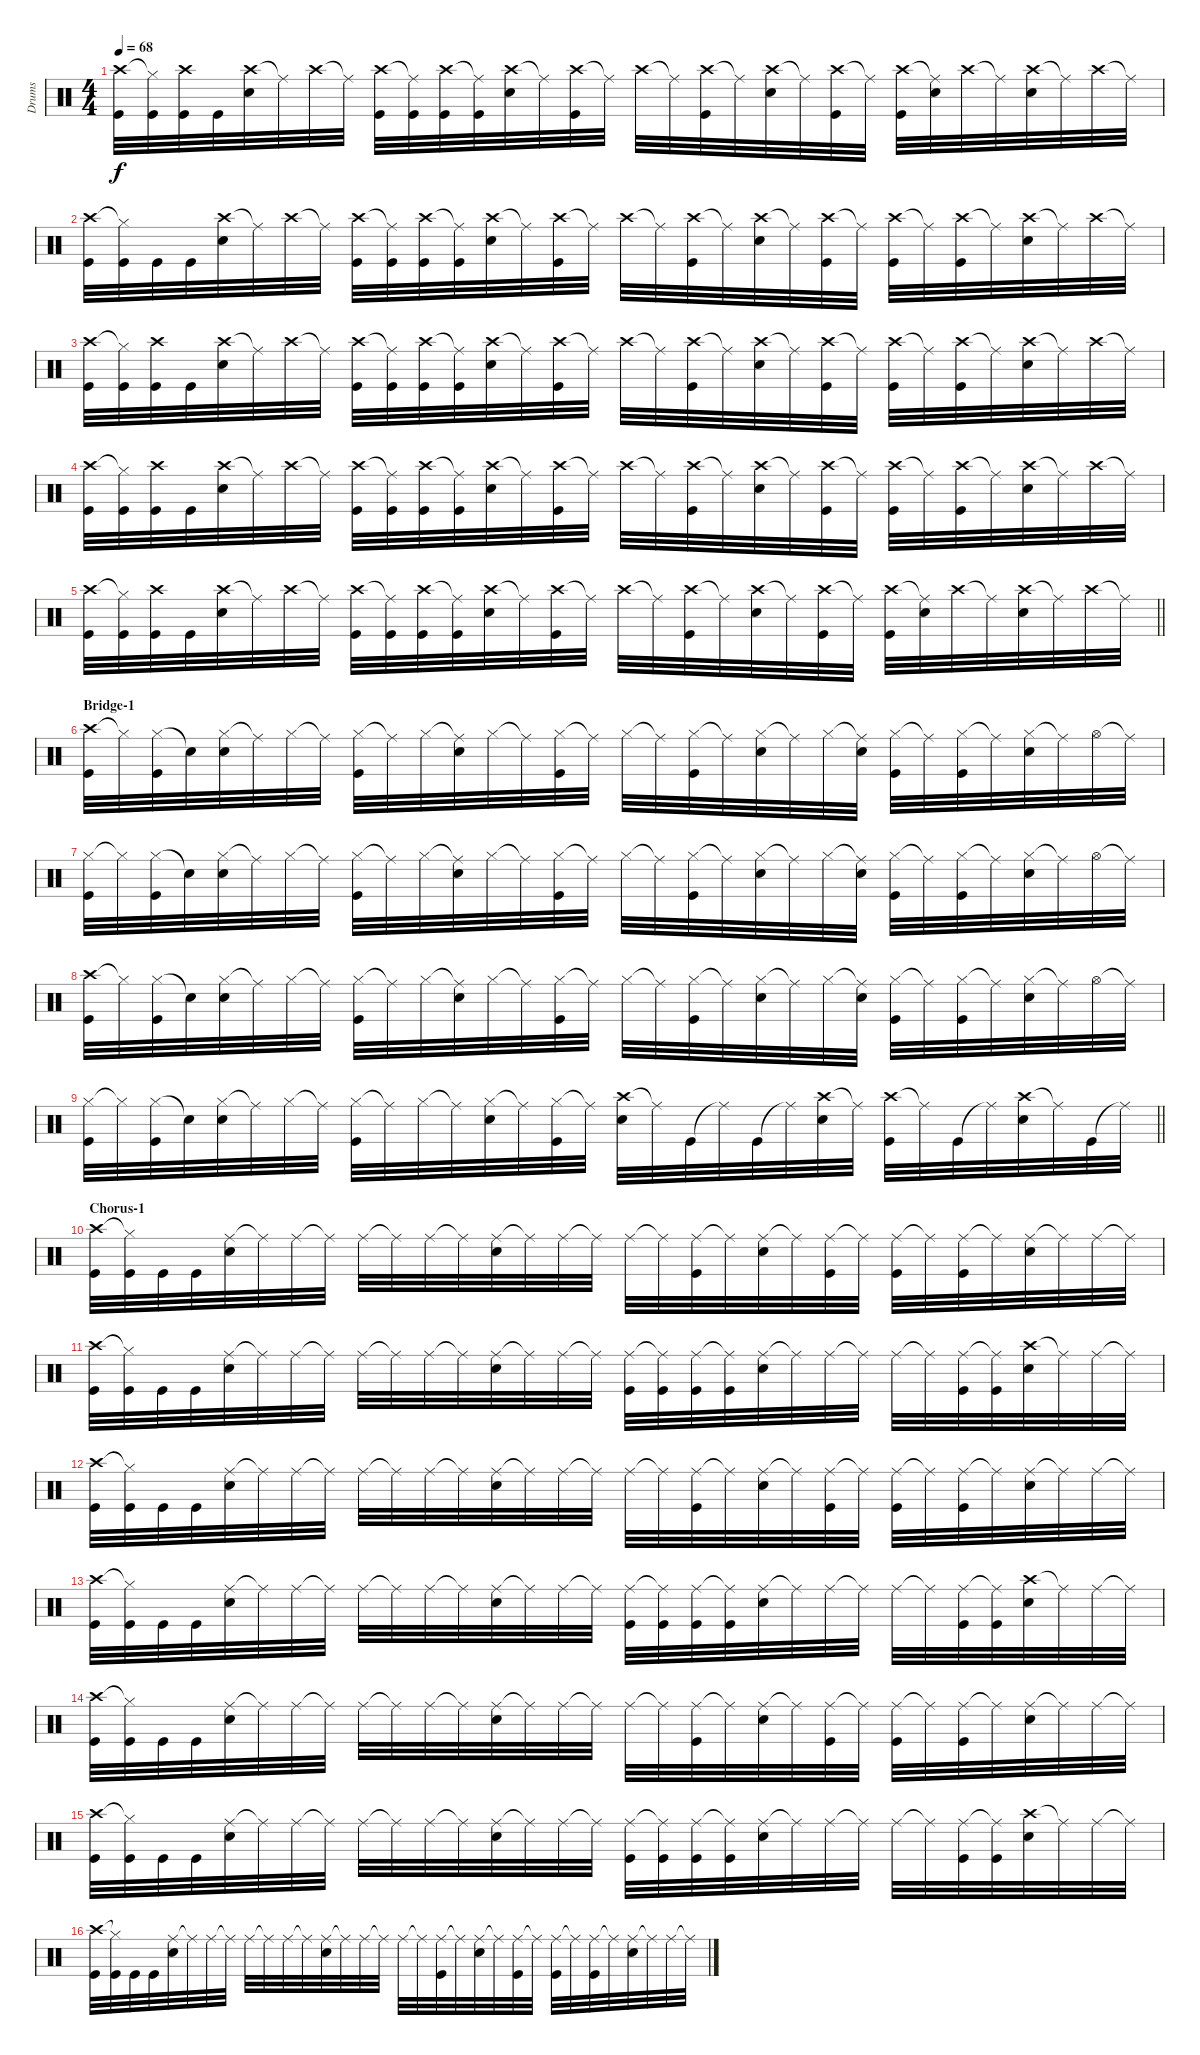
\track ("Drums" "Drums") {instrument percussion}
\staff {score}
\articulation defaults
\ts (4 4)
\tempo 68
\clef neutral
\ks c
("Crash high (hit)" "Kick (hit)").32{dy f} ("Hi-Hat (closed)"{t} "Kick (hit)").32 ("Crash high (hit)" "Kick (hit)").32 "Kick (hit)".32 ("Crash high (hit)" "Electric Snare (hit)").32 "Ride (middle)"{t}.32 "Crash high (hit)".32 "Ride (middle)"{t}.32 ("Crash high (hit)" "Kick (hit)").32 ("Ride (middle)"{t} "Kick (hit)").32 ("Crash high (hit)" "Kick (hit)").32 ("Ride (middle)"{t} "Kick (hit)").32 ("Crash high (hit)" "Electric Snare (hit)").32 "Ride (middle)"{t}.32 ("Crash high (hit)" "Kick (hit)").32 "Ride (middle)"{t}.32 "Crash high (hit)".32 "Ride (middle)"{t}.32 ("Crash high (hit)" "Kick (hit)").32 "Ride (middle)"{t}.32 ("Crash high (hit)" "Electric Snare (hit)").32 "Ride (middle)"{t}.32 ("Crash high (hit)" "Kick (hit)").32 "Ride (middle)"{t}.32 ("Crash high (hit)" "Kick (hit)").32 ("Ride (middle)"{t} "Electric Snare (hit)").32 "Crash high (hit)".32 "Ride (middle)"{t}.32 ("Crash high (hit)" "Electric Snare (hit)").32 "Ride (middle)"{t}.32 "Crash high (hit)".32 "Ride (middle)"{t}.32 |
("Crash high (hit)" "Kick (hit)").32 ("Hi-Hat (closed)"{t} "Kick (hit)").32 "Kick (hit)".32 "Kick (hit)".32 ("Crash high (hit)" "Electric Snare (hit)").32 "Ride (middle)"{t}.32 "Crash high (hit)".32 "Ride (middle)"{t}.32 ("Crash high (hit)" "Kick (hit)").32 ("Ride (middle)"{t} "Kick (hit)").32 ("Crash high (hit)" "Kick (hit)").32 ("Ride (middle)"{t} "Kick (hit)").32 ("Crash high (hit)" "Electric Snare (hit)").32 "Ride (middle)"{t}.32 ("Crash high (hit)" "Kick (hit)").32 "Ride (middle)"{t}.32 "Crash high (hit)".32 "Ride (middle)"{t}.32 ("Crash high (hit)" "Kick (hit)").32 "Ride (middle)"{t}.32 ("Crash high (hit)" "Electric Snare (hit)").32 "Ride (middle)"{t}.32 ("Crash high (hit)" "Kick (hit)").32 "Ride (middle)"{t}.32 ("Crash high (hit)" "Kick (hit)").32 "Ride (middle)"{t}.32 ("Crash high (hit)" "Kick (hit)").32 "Ride (middle)"{t}.32 ("Crash high (hit)" "Electric Snare (hit)").32 "Ride (middle)"{t}.32 "Crash high (hit)".32 "Ride (middle)"{t}.32 |
("Crash high (hit)" "Kick (hit)").32 ("Hi-Hat (closed)"{t} "Kick (hit)").32 ("Crash high (hit)" "Kick (hit)").32 "Kick (hit)".32 ("Crash high (hit)" "Electric Snare (hit)").32 "Ride (middle)"{t}.32 "Crash high (hit)".32 "Ride (middle)"{t}.32 ("Crash high (hit)" "Kick (hit)").32 ("Ride (middle)"{t} "Kick (hit)").32 ("Crash high (hit)" "Kick (hit)").32 ("Ride (middle)"{t} "Kick (hit)").32 ("Crash high (hit)" "Electric Snare (hit)").32 "Ride (middle)"{t}.32 ("Crash high (hit)" "Kick (hit)").32 "Ride (middle)"{t}.32 "Crash high (hit)".32 "Ride (middle)"{t}.32 ("Crash high (hit)" "Kick (hit)").32 "Ride (middle)"{t}.32 ("Crash high (hit)" "Electric Snare (hit)").32 "Ride (middle)"{t}.32 ("Crash high (hit)" "Kick (hit)").32 "Ride (middle)"{t}.32 ("Crash high (hit)" "Kick (hit)").32 "Ride (middle)"{t}.32 ("Crash high (hit)" "Kick (hit)").32 "Ride (middle)"{t}.32 ("Crash high (hit)" "Electric Snare (hit)").32 "Ride (middle)"{t}.32 "Crash high (hit)".32 "Ride (middle)"{t}.32 |
("Crash high (hit)" "Kick (hit)").32 ("Hi-Hat (closed)"{t} "Kick (hit)").32 ("Crash high (hit)" "Kick (hit)").32 "Kick (hit)".32 ("Crash high (hit)" "Electric Snare (hit)").32 "Ride (middle)"{t}.32 "Crash high (hit)".32 "Ride (middle)"{t}.32 ("Crash high (hit)" "Kick (hit)").32 ("Ride (middle)"{t} "Kick (hit)").32 ("Crash high (hit)" "Kick (hit)").32 ("Ride (middle)"{t} "Kick (hit)").32 ("Crash high (hit)" "Electric Snare (hit)").32 "Ride (middle)"{t}.32 ("Crash high (hit)" "Kick (hit)").32 "Ride (middle)"{t}.32 "Crash high (hit)".32 "Ride (middle)"{t}.32 ("Crash high (hit)" "Kick (hit)").32 "Ride (middle)"{t}.32 ("Crash high (hit)" "Electric Snare (hit)").32 "Ride (middle)"{t}.32 ("Crash high (hit)" "Kick (hit)").32 "Ride (middle)"{t}.32 ("Crash high (hit)" "Kick (hit)").32 "Ride (middle)"{t}.32 ("Crash high (hit)" "Kick (hit)").32 "Ride (middle)"{t}.32 ("Crash high (hit)" "Electric Snare (hit)").32 "Ride (middle)"{t}.32 "Crash high (hit)".32 "Ride (middle)"{t}.32 |
\barLineRight lightlight
("Crash high (hit)" "Kick (hit)").32 ("Hi-Hat (closed)"{t} "Kick (hit)").32 ("Crash high (hit)" "Kick (hit)").32 "Kick (hit)".32 ("Crash high (hit)" "Electric Snare (hit)").32 "Ride (middle)"{t}.32 "Crash high (hit)".32 "Ride (middle)"{t}.32 ("Crash high (hit)" "Kick (hit)").32 ("Ride (middle)"{t} "Kick (hit)").32 ("Crash high (hit)" "Kick (hit)").32 ("Ride (middle)"{t} "Kick (hit)").32 ("Crash high (hit)" "Electric Snare (hit)").32 "Ride (middle)"{t}.32 ("Crash high (hit)" "Kick (hit)").32 "Ride (middle)"{t}.32 "Crash high (hit)".32 "Ride (middle)"{t}.32 ("Crash high (hit)" "Kick (hit)").32 "Ride (middle)"{t}.32 ("Crash high (hit)" "Electric Snare (hit)").32 "Ride (middle)"{t}.32 ("Crash high (hit)" "Kick (hit)").32 "Ride (middle)"{t}.32 ("Crash high (hit)" "Kick (hit)").32 ("Ride (middle)"{t} "Electric Snare (hit)").32 "Crash high (hit)".32 "Ride (middle)"{t}.32 ("Crash high (hit)" "Electric Snare (hit)").32 "Ride (middle)"{t}.32 "Crash high (hit)".32 "Ride (middle)"{t}.32 |
\section ("" "Bridge-1")
("Crash high (hit)" "Kick (hit)").32 "Hi-Hat (closed)"{t}.32 ("Hi-Hat (closed)" "Kick (hit)").32 "Snare (hit)"{t}.32 ("Hi-Hat (closed)" "Electric Snare (hit)").32 "Ride (middle)"{t}.32 "Hi-Hat (closed)".32 "Ride (middle)"{t}.32 ("Hi-Hat (closed)" "Kick (hit)").32 "Ride (middle)"{t}.32 "Hi-Hat (closed)".32 ("Ride (middle)"{t} "Electric Snare (hit)").32 "Hi-Hat (closed)".32 "Ride (middle)"{t}.32 ("Hi-Hat (closed)" "Kick (hit)").32 "Ride (middle)"{t}.32 "Hi-Hat (closed)".32 "Ride (middle)"{t}.32 ("Hi-Hat (closed)" "Kick (hit)").32 "Ride (middle)"{t}.32 ("Hi-Hat (closed)" "Electric Snare (hit)").32 "Ride (middle)"{t}.32 "Hi-Hat (closed)".32 ("Ride (middle)"{t} "Electric Snare (hit)").32 ("Hi-Hat (closed)" "Kick (hit)").32 "Ride (middle)"{t}.32 ("Hi-Hat (closed)" "Kick (hit)").32 "Ride (middle)"{t}.32 ("Hi-Hat (closed)" "Electric Snare (hit)").32 "Ride (middle)"{t}.32 "Hi-Hat (open)".32 "Ride (middle)"{t}.32 |
("Hi-Hat (closed)" "Kick (hit)").32 "Hi-Hat (closed)"{t}.32 ("Hi-Hat (closed)" "Kick (hit)").32 "Snare (hit)"{t}.32 ("Hi-Hat (closed)" "Electric Snare (hit)").32 "Ride (middle)"{t}.32 "Hi-Hat (closed)".32 "Ride (middle)"{t}.32 ("Hi-Hat (closed)" "Kick (hit)").32 "Ride (middle)"{t}.32 "Hi-Hat (closed)".32 ("Ride (middle)"{t} "Electric Snare (hit)").32 "Hi-Hat (closed)".32 "Ride (middle)"{t}.32 ("Hi-Hat (closed)" "Kick (hit)").32 "Ride (middle)"{t}.32 "Hi-Hat (closed)".32 "Ride (middle)"{t}.32 ("Hi-Hat (closed)" "Kick (hit)").32 "Ride (middle)"{t}.32 ("Hi-Hat (closed)" "Electric Snare (hit)").32 "Ride (middle)"{t}.32 "Hi-Hat (closed)".32 ("Ride (middle)"{t} "Electric Snare (hit)").32 ("Hi-Hat (closed)" "Kick (hit)").32 "Ride (middle)"{t}.32 ("Hi-Hat (closed)" "Kick (hit)").32 "Ride (middle)"{t}.32 ("Hi-Hat (closed)" "Electric Snare (hit)").32 "Ride (middle)"{t}.32 "Hi-Hat (open)".32 "Ride (middle)"{t}.32 |
("Crash high (hit)" "Kick (hit)").32 "Hi-Hat (closed)"{t}.32 ("Hi-Hat (closed)" "Kick (hit)").32 "Snare (hit)"{t}.32 ("Hi-Hat (closed)" "Electric Snare (hit)").32 "Ride (middle)"{t}.32 "Hi-Hat (closed)".32 "Ride (middle)"{t}.32 ("Hi-Hat (closed)" "Kick (hit)").32 "Ride (middle)"{t}.32 "Hi-Hat (closed)".32 ("Ride (middle)"{t} "Electric Snare (hit)").32 "Hi-Hat (closed)".32 "Ride (middle)"{t}.32 ("Hi-Hat (closed)" "Kick (hit)").32 "Ride (middle)"{t}.32 "Hi-Hat (closed)".32 "Ride (middle)"{t}.32 ("Hi-Hat (closed)" "Kick (hit)").32 "Ride (middle)"{t}.32 ("Hi-Hat (closed)" "Electric Snare (hit)").32 "Ride (middle)"{t}.32 "Hi-Hat (closed)".32 ("Ride (middle)"{t} "Electric Snare (hit)").32 ("Hi-Hat (closed)" "Kick (hit)").32 "Ride (middle)"{t}.32 ("Hi-Hat (closed)" "Kick (hit)").32 "Ride (middle)"{t}.32 ("Hi-Hat (closed)" "Electric Snare (hit)").32 "Ride (middle)"{t}.32 "Hi-Hat (open)".32 "Ride (middle)"{t}.32 |
\barLineRight lightlight
("Hi-Hat (closed)" "Kick (hit)").32 "Hi-Hat (closed)"{t}.32 ("Hi-Hat (closed)" "Kick (hit)").32 "Snare (hit)"{t}.32 ("Hi-Hat (closed)" "Electric Snare (hit)").32 "Ride (middle)"{t}.32 "Hi-Hat (closed)".32 "Ride (middle)"{t}.32 ("Hi-Hat (closed)" "Kick (hit)").32 "Ride (middle)"{t}.32 "Hi-Hat (closed)".32 "Ride (middle)"{t}.32 ("Hi-Hat (closed)" "Electric Snare (hit)").32 "Ride (middle)"{t}.32 ("Hi-Hat (closed)" "Kick (hit)").32 "Ride (middle)"{t}.32 ("Crash high (hit)" "Electric Snare (hit)").32 "Ride (middle)"{t}.32 "Kick (hit)".32 "Ride (middle)"{t}.32 "Kick (hit)".32 "Ride (middle)"{t}.32 ("Crash high (hit)" "Electric Snare (hit)").32 "Ride (middle)"{t}.32 ("Crash high (hit)" "Kick (hit)").32 "Ride (middle)"{t}.32 "Kick (hit)".32 "Ride (middle)"{t}.32 ("Crash high (hit)" "Electric Snare (hit)").32 "Ride (middle)"{t}.32 "Kick (hit)".32 "Ride (middle)"{t}.32 |
\section ("" "Chorus-1")
("Crash high (hit)" "Kick (hit)").32 ("Hi-Hat (closed)"{t} "Kick (hit)").32 "Kick (hit)".32 "Kick (hit)".32 ("Ride (middle)" "Electric Snare (hit)").32 "Ride (middle)"{t}.32 "Ride (middle)".32 "Ride (middle)"{t}.32 "Ride (middle)".32 "Ride (middle)"{t}.32 "Ride (middle)".32 "Ride (middle)"{t}.32 ("Ride (middle)" "Electric Snare (hit)").32 "Ride (middle)"{t}.32 "Ride (middle)".32 "Ride (middle)"{t}.32 "Ride (middle)".32 "Ride (middle)"{t}.32 ("Ride (middle)" "Kick (hit)").32 "Ride (middle)"{t}.32 ("Ride (middle)" "Electric Snare (hit)").32 "Ride (middle)"{t}.32 ("Ride (middle)" "Kick (hit)").32 "Ride (middle)"{t}.32 ("Ride (middle)" "Kick (hit)").32 "Ride (middle)"{t}.32 ("Ride (middle)" "Kick (hit)").32 "Ride (middle)"{t}.32 ("Ride (middle)" "Electric Snare (hit)").32 "Ride (middle)"{t}.32 "Ride (middle)".32 "Ride (middle)"{t}.32 |
("Crash high (hit)" "Kick (hit)").32 ("Hi-Hat (closed)"{t} "Kick (hit)").32 "Kick (hit)".32 "Kick (hit)".32 ("Ride (middle)" "Electric Snare (hit)").32 "Ride (middle)"{t}.32 "Ride (middle)".32 "Ride (middle)"{t}.32 "Ride (middle)".32 "Ride (middle)"{t}.32 "Ride (middle)".32 "Ride (middle)"{t}.32 ("Ride (middle)" "Electric Snare (hit)").32 "Ride (middle)"{t}.32 "Ride (middle)".32 "Ride (middle)"{t}.32 ("Ride (middle)" "Kick (hit)").32 ("Ride (middle)"{t} "Kick (hit)").32 ("Ride (middle)" "Kick (hit)").32 ("Ride (middle)"{t} "Kick (hit)").32 ("Ride (middle)" "Electric Snare (hit)").32 "Ride (middle)"{t}.32 "Ride (middle)".32 "Ride (middle)"{t}.32 "Ride (middle)".32 "Ride (middle)"{t}.32 ("Ride (middle)" "Kick (hit)").32 ("Ride (middle)"{t} "Kick (hit)").32 ("Crash high (hit)" "Electric Snare (hit)").32 "Ride (middle)"{t}.32 "Ride (middle)".32 "Ride (middle)"{t}.32 |
("Crash high (hit)" "Kick (hit)").32 ("Hi-Hat (closed)"{t} "Kick (hit)").32 "Kick (hit)".32 "Kick (hit)".32 ("Ride (middle)" "Electric Snare (hit)").32 "Ride (middle)"{t}.32 "Ride (middle)".32 "Ride (middle)"{t}.32 "Ride (middle)".32 "Ride (middle)"{t}.32 "Ride (middle)".32 "Ride (middle)"{t}.32 ("Ride (middle)" "Electric Snare (hit)").32 "Ride (middle)"{t}.32 "Ride (middle)".32 "Ride (middle)"{t}.32 "Ride (middle)".32 "Ride (middle)"{t}.32 ("Ride (middle)" "Kick (hit)").32 "Ride (middle)"{t}.32 ("Ride (middle)" "Electric Snare (hit)").32 "Ride (middle)"{t}.32 ("Ride (middle)" "Kick (hit)").32 "Ride (middle)"{t}.32 ("Ride (middle)" "Kick (hit)").32 "Ride (middle)"{t}.32 ("Ride (middle)" "Kick (hit)").32 "Ride (middle)"{t}.32 ("Ride (middle)" "Electric Snare (hit)").32 "Ride (middle)"{t}.32 "Ride (middle)".32 "Ride (middle)"{t}.32 |
("Crash high (hit)" "Kick (hit)").32 ("Hi-Hat (closed)"{t} "Kick (hit)").32 "Kick (hit)".32 "Kick (hit)".32 ("Ride (middle)" "Electric Snare (hit)").32 "Ride (middle)"{t}.32 "Ride (middle)".32 "Ride (middle)"{t}.32 "Ride (middle)".32 "Ride (middle)"{t}.32 "Ride (middle)".32 "Ride (middle)"{t}.32 ("Ride (middle)" "Electric Snare (hit)").32 "Ride (middle)"{t}.32 "Ride (middle)".32 "Ride (middle)"{t}.32 ("Ride (middle)" "Kick (hit)").32 ("Ride (middle)"{t} "Kick (hit)").32 ("Ride (middle)" "Kick (hit)").32 ("Ride (middle)"{t} "Kick (hit)").32 ("Ride (middle)" "Electric Snare (hit)").32 "Ride (middle)"{t}.32 "Ride (middle)".32 "Ride (middle)"{t}.32 "Ride (middle)".32 "Ride (middle)"{t}.32 ("Ride (middle)" "Kick (hit)").32 ("Ride (middle)"{t} "Kick (hit)").32 ("Crash high (hit)" "Electric Snare (hit)").32 "Ride (middle)"{t}.32 "Ride (middle)".32 "Ride (middle)"{t}.32 |
("Crash high (hit)" "Kick (hit)").32 ("Hi-Hat (closed)"{t} "Kick (hit)").32 "Kick (hit)".32 "Kick (hit)".32 ("Ride (middle)" "Electric Snare (hit)").32 "Ride (middle)"{t}.32 "Ride (middle)".32 "Ride (middle)"{t}.32 "Ride (middle)".32 "Ride (middle)"{t}.32 "Ride (middle)".32 "Ride (middle)"{t}.32 ("Ride (middle)" "Electric Snare (hit)").32 "Ride (middle)"{t}.32 "Ride (middle)".32 "Ride (middle)"{t}.32 "Ride (middle)".32 "Ride (middle)"{t}.32 ("Ride (middle)" "Kick (hit)").32 "Ride (middle)"{t}.32 ("Ride (middle)" "Electric Snare (hit)").32 "Ride (middle)"{t}.32 ("Ride (middle)" "Kick (hit)").32 "Ride (middle)"{t}.32 ("Ride (middle)" "Kick (hit)").32 "Ride (middle)"{t}.32 ("Ride (middle)" "Kick (hit)").32 "Ride (middle)"{t}.32 ("Ride (middle)" "Electric Snare (hit)").32 "Ride (middle)"{t}.32 "Ride (middle)".32 "Ride (middle)"{t}.32 |
("Crash high (hit)" "Kick (hit)").32 ("Hi-Hat (closed)"{t} "Kick (hit)").32 "Kick (hit)".32 "Kick (hit)".32 ("Ride (middle)" "Electric Snare (hit)").32 "Ride (middle)"{t}.32 "Ride (middle)".32 "Ride (middle)"{t}.32 "Ride (middle)".32 "Ride (middle)"{t}.32 "Ride (middle)".32 "Ride (middle)"{t}.32 ("Ride (middle)" "Electric Snare (hit)").32 "Ride (middle)"{t}.32 "Ride (middle)".32 "Ride (middle)"{t}.32 ("Ride (middle)" "Kick (hit)").32 ("Ride (middle)"{t} "Kick (hit)").32 ("Ride (middle)" "Kick (hit)").32 ("Ride (middle)"{t} "Kick (hit)").32 ("Ride (middle)" "Electric Snare (hit)").32 "Ride (middle)"{t}.32 "Ride (middle)".32 "Ride (middle)"{t}.32 "Ride (middle)".32 "Ride (middle)"{t}.32 ("Ride (middle)" "Kick (hit)").32 ("Ride (middle)"{t} "Kick (hit)").32 ("Crash high (hit)" "Electric Snare (hit)").32 "Ride (middle)"{t}.32 "Ride (middle)".32 "Ride (middle)"{t}.32 |
("Crash high (hit)" "Kick (hit)").32 ("Hi-Hat (closed)"{t} "Kick (hit)").32 "Kick (hit)".32 "Kick (hit)".32 ("Ride (middle)" "Electric Snare (hit)").32 "Ride (middle)"{t}.32 "Ride (middle)".32 "Ride (middle)"{t}.32 "Ride (middle)".32 "Ride (middle)"{t}.32 "Ride (middle)".32 "Ride (middle)"{t}.32 ("Ride (middle)" "Electric Snare (hit)").32 "Ride (middle)"{t}.32 "Ride (middle)".32 "Ride (middle)"{t}.32 "Ride (middle)".32 "Ride (middle)"{t}.32 ("Ride (middle)" "Kick (hit)").32 "Ride (middle)"{t}.32 ("Ride (middle)" "Electric Snare (hit)").32 "Ride (middle)"{t}.32 ("Ride (middle)" "Kick (hit)").32 "Ride (middle)"{t}.32 ("Ride (middle)" "Kick (hit)").32 "Ride (middle)"{t}.32 ("Ride (middle)" "Kick (hit)").32 "Ride (middle)"{t}.32 ("Ride (middle)" "Electric Snare (hit)").32 "Ride (middle)"{t}.32 "Ride (middle)".32 "Ride (middle)"{t}.32
